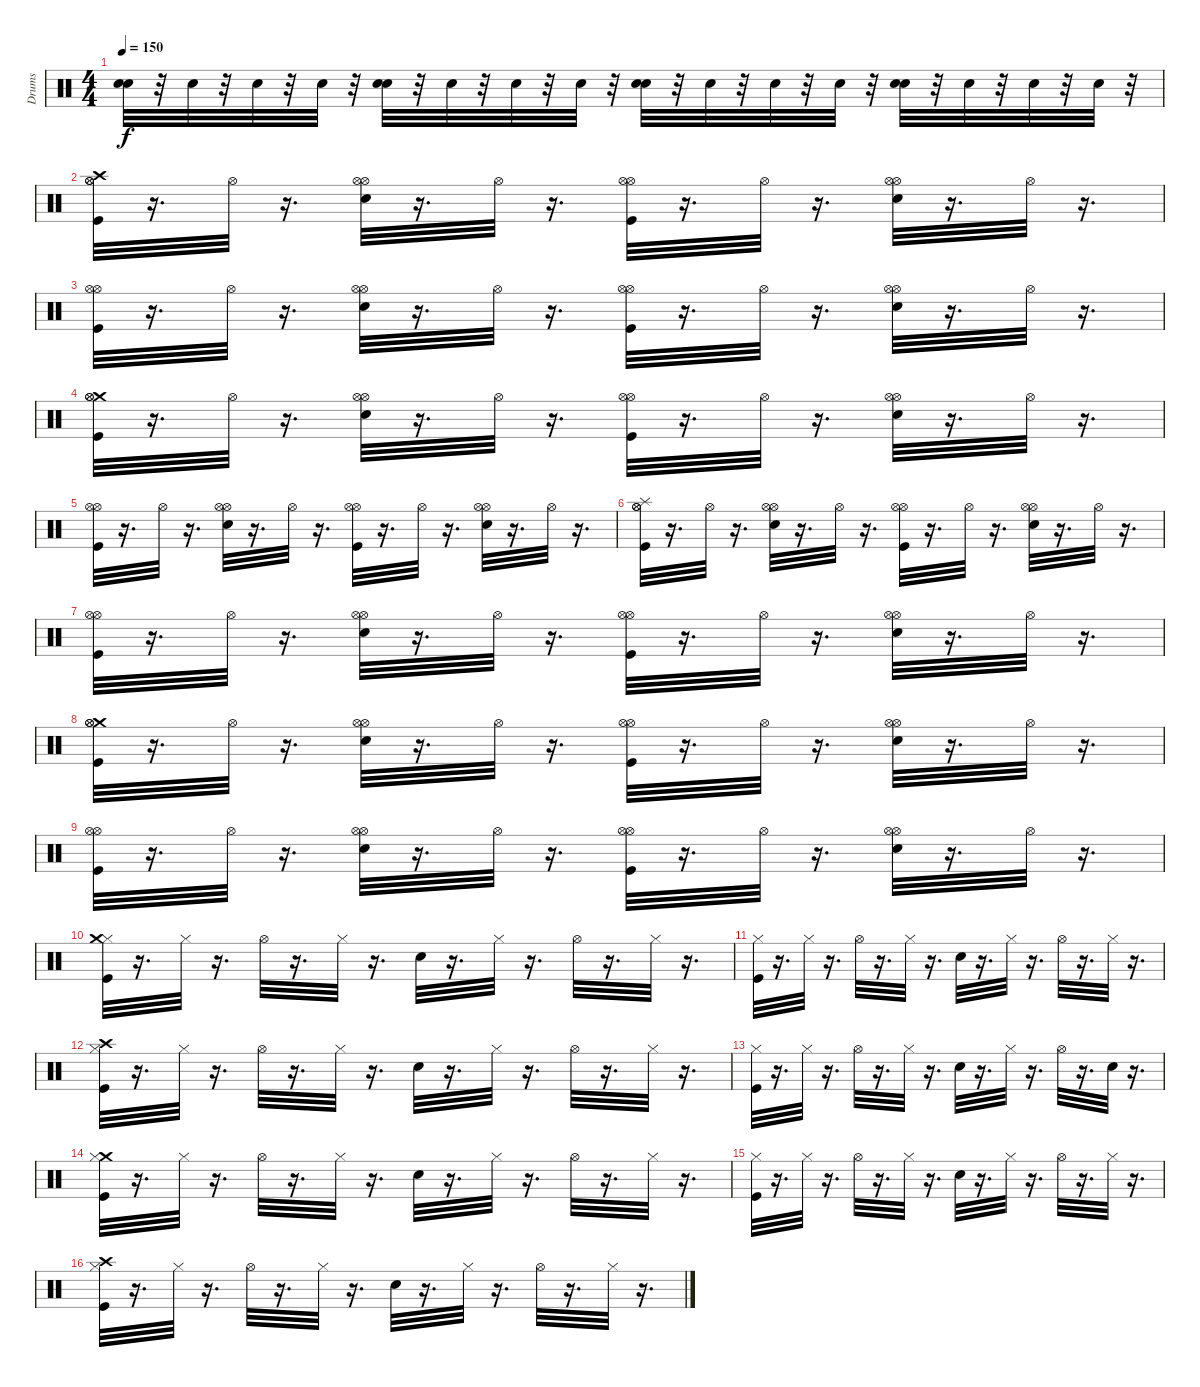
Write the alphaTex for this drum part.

\track ("Drums" "Drums") {instrument percussion}
\staff {score}
\articulation defaults
\ts (4 4)
\tempo 150
\clef neutral
\ks c
("Snare (hit) 2" "Snare (hit) 2").32{dy f} r.32 "Snare (hit) 2".32 r.32 "Snare (hit) 2".32 r.32 "Snare (hit) 2".32 r.32 ("Snare (hit) 2" "Snare (hit) 2").32 r.32 "Snare (hit) 2".32 r.32 "Snare (hit) 2".32 r.32 "Snare (hit) 2".32 r.32 ("Snare (hit) 2" "Snare (hit) 2").32 r.32 "Snare (hit) 2".32 r.32 "Snare (hit) 2".32 r.32 "Snare (hit) 2".32 r.32 ("Snare (hit) 2" "Snare (hit) 2").32 r.32 "Snare (hit) 2".32 r.32 "Snare (hit) 2".32 r.32 "Snare (hit) 2".32 r.32 |
("Crash high (hit)" "Kick (hit)" "Hi-Hat (open)" "Hi-Hat (open)").32 r.16{d} "Hi-Hat (open)".32 r.16{d} ("Hi-Hat (open)" "Snare (hit) 2" "Hi-Hat (open)").32 r.16{d} "Hi-Hat (open)".32 r.16{d} ("Hi-Hat (open)" "Kick (hit)" "Hi-Hat (open)").32 r.16{d} "Hi-Hat (open)".32 r.16{d} ("Hi-Hat (open)" "Hi-Hat (open)" "Snare (hit) 2").32 r.16{d} "Hi-Hat (open)".32 r.16{d} |
("Hi-Hat (open)" "Hi-Hat (open)" "Kick (hit)").32 r.16{d} "Hi-Hat (open)".32 r.16{d} ("Snare (hit) 2" "Hi-Hat (open)" "Hi-Hat (open)").32 r.16{d} "Hi-Hat (open)".32 r.16{d} ("Kick (hit)" "Hi-Hat (open)" "Hi-Hat (open)").32 r.16{d} "Hi-Hat (open)".32 r.16{d} ("Hi-Hat (open)" "Hi-Hat (open)" "Snare (hit) 2").32 r.16{d} "Hi-Hat (open)".32 r.16{d} |
("Crash medium (hit)" "Hi-Hat (open)" "Kick (hit)" "Hi-Hat (open)").32 r.16{d} "Hi-Hat (open)".32 r.16{d} ("Hi-Hat (open)" "Snare (hit) 2" "Hi-Hat (open)").32 r.16{d} "Hi-Hat (open)".32 r.16{d} ("Kick (hit)" "Hi-Hat (open)" "Hi-Hat (open)").32 r.16{d} "Hi-Hat (open)".32 r.16{d} ("Hi-Hat (open)" "Hi-Hat (open)" "Snare (hit) 2").32 r.16{d} "Hi-Hat (open)".32 r.16{d} |
("Kick (hit)" "Hi-Hat (open)" "Hi-Hat (open)").32 r.16{d} "Hi-Hat (open)".32 r.16{d} ("Snare (hit) 2" "Hi-Hat (open)" "Hi-Hat (open)").32 r.16{d} "Hi-Hat (open)".32 r.16{d} ("Kick (hit)" "Hi-Hat (open)" "Hi-Hat (open)").32 r.16{d} "Hi-Hat (open)".32 r.16{d} ("Hi-Hat (open)" "Snare (hit) 2" "Hi-Hat (open)").32 r.16{d} "Hi-Hat (open)".32 r.16{d} |
("Splash (hit)" "Hi-Hat (open)" "Kick (hit)" "Hi-Hat (open)").32 r.16{d} "Hi-Hat (open)".32 r.16{d} ("Hi-Hat (open)" "Hi-Hat (open)" "Snare (hit) 2").32 r.16{d} "Hi-Hat (open)".32 r.16{d} ("Hi-Hat (open)" "Hi-Hat (open)" "Kick (hit)").32 r.16{d} "Hi-Hat (open)".32 r.16{d} ("Snare (hit) 2" "Hi-Hat (open)" "Hi-Hat (open)").32 r.16{d} "Hi-Hat (open)".32 r.16{d} |
("Kick (hit)" "Hi-Hat (open)" "Hi-Hat (open)").32 r.16{d} "Hi-Hat (open)".32 r.16{d} ("Snare (hit) 2" "Hi-Hat (open)" "Hi-Hat (open)").32 r.16{d} "Hi-Hat (open)".32 r.16{d} ("Hi-Hat (open)" "Kick (hit)" "Hi-Hat (open)").32 r.16{d} "Hi-Hat (open)".32 r.16{d} ("Hi-Hat (open)" "Snare (hit) 2" "Hi-Hat (open)").32 r.16{d} "Hi-Hat (open)".32 r.16{d} |
("Crash medium (hit)" "Kick (hit)" "Hi-Hat (open)" "Hi-Hat (open)").32 r.16{d} "Hi-Hat (open)".32 r.16{d} ("Hi-Hat (open)" "Hi-Hat (open)" "Snare (hit) 2").32 r.16{d} "Hi-Hat (open)".32 r.16{d} ("Kick (hit)" "Hi-Hat (open)" "Hi-Hat (open)").32 r.16{d} "Hi-Hat (open)".32 r.16{d} ("Snare (hit) 2" "Hi-Hat (open)" "Hi-Hat (open)").32 r.16{d} "Hi-Hat (open)".32 r.16{d} |
("Kick (hit)" "Hi-Hat (open)" "Hi-Hat (open)").32 r.16{d} "Hi-Hat (open)".32 r.16{d} ("Hi-Hat (open)" "Snare (hit) 2" "Hi-Hat (open)").32 r.16{d} "Hi-Hat (open)".32 r.16{d} ("Kick (hit)" "Hi-Hat (open)" "Hi-Hat (open)").32 r.16{d} "Hi-Hat (open)".32 r.16{d} ("Snare (hit) 2" "Hi-Hat (open)" "Hi-Hat (open)").32 r.16{d} "Hi-Hat (open)".32 r.16{d} |
("Hi-Hat (closed)" "Kick (hit)" "Crash medium (hit)").32 r.16{d} "Hi-Hat (closed)".32 r.16{d} "Hi-Hat (open)".32 r.16{d} "Hi-Hat (closed)".32 r.16{d} "Snare (hit) 2".32 r.16{d} "Hi-Hat (closed)".32 r.16{d} "Hi-Hat (open)".32 r.16{d} "Hi-Hat (closed)".32 r.16{d} |
("Hi-Hat (closed)" "Kick (hit)").32 r.16{d} "Hi-Hat (closed)".32 r.16{d} "Hi-Hat (open)".32 r.16{d} "Hi-Hat (closed)".32 r.16{d} "Snare (hit) 2".32 r.16{d} "Hi-Hat (closed)".32 r.16{d} "Hi-Hat (open)".32 r.16{d} "Hi-Hat (closed)".32 r.16{d} |
("Hi-Hat (closed)" "Crash high (hit)" "Kick (hit)").32 r.16{d} "Hi-Hat (closed)".32 r.16{d} "Hi-Hat (open)".32 r.16{d} "Hi-Hat (closed)".32 r.16{d} "Snare (hit) 2".32 r.16{d} "Hi-Hat (closed)".32 r.16{d} "Hi-Hat (open)".32 r.16{d} "Hi-Hat (closed)".32 r.16{d} |
("Hi-Hat (closed)" "Kick (hit)").32 r.16{d} "Hi-Hat (closed)".32 r.16{d} "Hi-Hat (open)".32 r.16{d} "Hi-Hat (closed)".32 r.16{d} "Snare (hit) 2".32 r.16{d} "Hi-Hat (closed)".32 r.16{d} "Hi-Hat (open)".32 r.16{d} "Snare (hit) 2".32 r.16{d} |
("Crash medium (hit)" "Hi-Hat (closed)" "Kick (hit)").32 r.16{d} "Hi-Hat (closed)".32 r.16{d} "Hi-Hat (open)".32 r.16{d} "Hi-Hat (closed)".32 r.16{d} "Snare (hit) 2".32 r.16{d} "Hi-Hat (closed)".32 r.16{d} "Hi-Hat (open)".32 r.16{d} "Hi-Hat (closed)".32 r.16{d} |
("Hi-Hat (closed)" "Kick (hit)").32 r.16{d} "Hi-Hat (closed)".32 r.16{d} "Hi-Hat (open)".32 r.16{d} "Hi-Hat (closed)".32 r.16{d} "Snare (hit) 2".32 r.16{d} "Hi-Hat (closed)".32 r.16{d} "Hi-Hat (open)".32 r.16{d} "Hi-Hat (closed)".32 r.16{d} |
("Crash high (hit)" "Hi-Hat (closed)" "Kick (hit)").32 r.16{d} "Hi-Hat (closed)".32 r.16{d} "Hi-Hat (open)".32 r.16{d} "Hi-Hat (closed)".32 r.16{d} "Snare (hit) 2".32 r.16{d} "Hi-Hat (closed)".32 r.16{d} "Hi-Hat (open)".32 r.16{d} "Hi-Hat (closed)".32 r.16{d}
